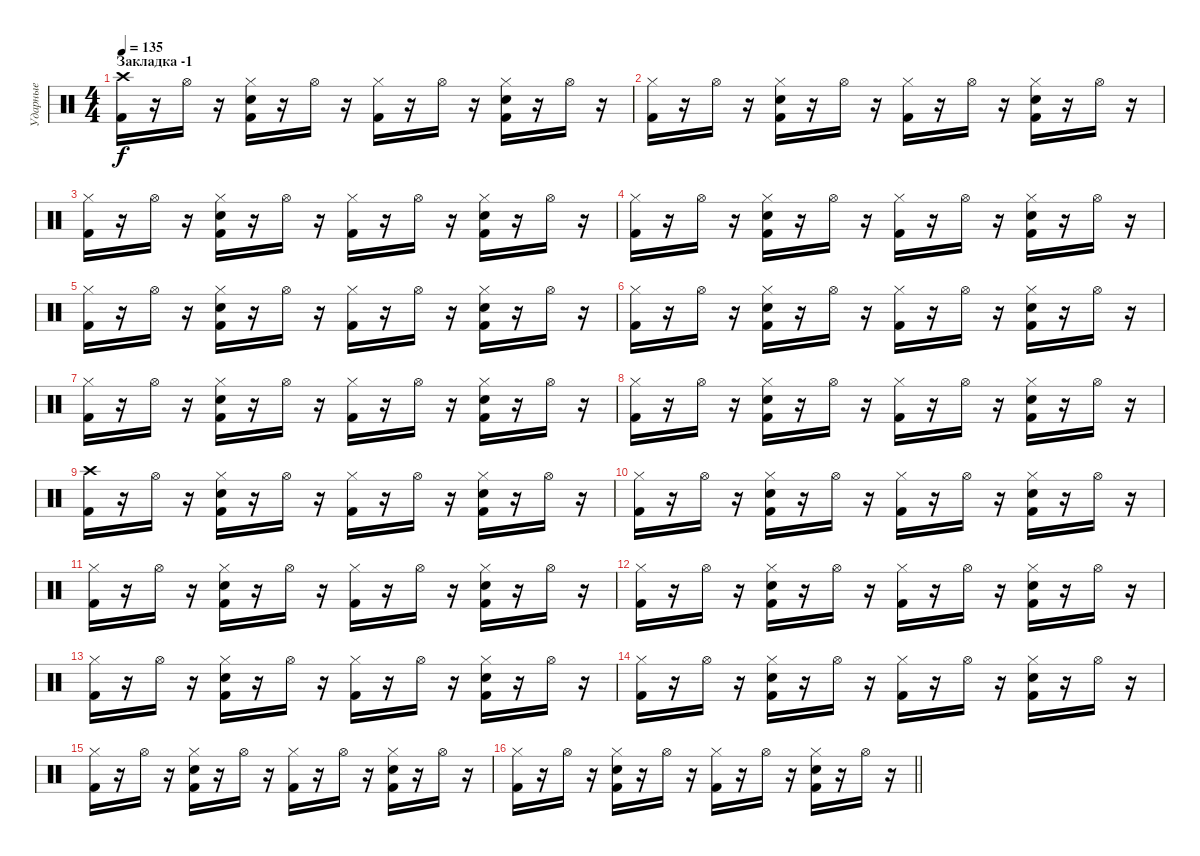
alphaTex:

\track ("Ударные" "Ударные") {instrument percussion}
\staff {score}
\articulation defaults
\ts (4 4)
\section ("" "Закладка -1")
\tempo 135
\clef neutral
\ks c
("Crash high (hit)" "Kick (hit) 2").16{dy f} r.16 "Hi-Hat (open)".16 r.16 ("Hi-Hat (closed)" "Electric Snare (hit)" "Kick (hit) 2").16 r.16 "Hi-Hat (open)".16 r.16 ("Hi-Hat (closed)" "Kick (hit) 2").16 r.16 "Hi-Hat (open)".16 r.16 ("Hi-Hat (closed)" "Electric Snare (hit)" "Kick (hit) 2").16 r.16 "Hi-Hat (open)".16 r.16 |
("Hi-Hat (closed)" "Kick (hit) 2").16 r.16 "Hi-Hat (open)".16 r.16 ("Hi-Hat (closed)" "Electric Snare (hit)" "Kick (hit) 2").16 r.16 "Hi-Hat (open)".16 r.16 ("Hi-Hat (closed)" "Kick (hit) 2").16 r.16 "Hi-Hat (open)".16 r.16 ("Hi-Hat (closed)" "Electric Snare (hit)" "Kick (hit) 2").16 r.16 "Hi-Hat (open)".16 r.16 |
("Hi-Hat (closed)" "Kick (hit) 2").16 r.16 "Hi-Hat (open)".16 r.16 ("Hi-Hat (closed)" "Electric Snare (hit)" "Kick (hit) 2").16 r.16 "Hi-Hat (open)".16 r.16 ("Hi-Hat (closed)" "Kick (hit) 2").16 r.16 "Hi-Hat (open)".16 r.16 ("Hi-Hat (closed)" "Electric Snare (hit)" "Kick (hit) 2").16 r.16 "Hi-Hat (open)".16 r.16 |
("Hi-Hat (closed)" "Kick (hit) 2").16 r.16 "Hi-Hat (open)".16 r.16 ("Hi-Hat (closed)" "Electric Snare (hit)" "Kick (hit) 2").16 r.16 "Hi-Hat (open)".16 r.16 ("Hi-Hat (closed)" "Kick (hit) 2").16 r.16 "Hi-Hat (open)".16 r.16 ("Hi-Hat (closed)" "Electric Snare (hit)" "Kick (hit) 2").16 r.16 "Hi-Hat (open)".16 r.16 |
("Hi-Hat (closed)" "Kick (hit) 2").16 r.16 "Hi-Hat (open)".16 r.16 ("Hi-Hat (closed)" "Electric Snare (hit)" "Kick (hit) 2").16 r.16 "Hi-Hat (open)".16 r.16 ("Hi-Hat (closed)" "Kick (hit) 2").16 r.16 "Hi-Hat (open)".16 r.16 ("Hi-Hat (closed)" "Electric Snare (hit)" "Kick (hit) 2").16 r.16 "Hi-Hat (open)".16 r.16 |
("Hi-Hat (closed)" "Kick (hit) 2").16 r.16 "Hi-Hat (open)".16 r.16 ("Hi-Hat (closed)" "Electric Snare (hit)" "Kick (hit) 2").16 r.16 "Hi-Hat (open)".16 r.16 ("Hi-Hat (closed)" "Kick (hit) 2").16 r.16 "Hi-Hat (open)".16 r.16 ("Hi-Hat (closed)" "Electric Snare (hit)" "Kick (hit) 2").16 r.16 "Hi-Hat (open)".16 r.16 |
("Hi-Hat (closed)" "Kick (hit) 2").16 r.16 "Hi-Hat (open)".16 r.16 ("Hi-Hat (closed)" "Electric Snare (hit)" "Kick (hit) 2").16 r.16 "Hi-Hat (open)".16 r.16 ("Hi-Hat (closed)" "Kick (hit) 2").16 r.16 "Hi-Hat (open)".16 r.16 ("Hi-Hat (closed)" "Electric Snare (hit)" "Kick (hit) 2").16 r.16 "Hi-Hat (open)".16 r.16 |
("Hi-Hat (closed)" "Kick (hit) 2").16 r.16 "Hi-Hat (open)".16 r.16 ("Hi-Hat (closed)" "Electric Snare (hit)" "Kick (hit) 2").16 r.16 "Hi-Hat (open)".16 r.16 ("Hi-Hat (closed)" "Kick (hit) 2").16 r.16 "Hi-Hat (open)".16 r.16 ("Hi-Hat (closed)" "Electric Snare (hit)" "Kick (hit) 2").16 r.16 "Hi-Hat (open)".16 r.16 |
("Crash high (hit)" "Kick (hit) 2").16 r.16 "Hi-Hat (open)".16 r.16 ("Hi-Hat (closed)" "Electric Snare (hit)" "Kick (hit) 2").16 r.16 "Hi-Hat (open)".16 r.16 ("Hi-Hat (closed)" "Kick (hit) 2").16 r.16 "Hi-Hat (open)".16 r.16 ("Hi-Hat (closed)" "Electric Snare (hit)" "Kick (hit) 2").16 r.16 "Hi-Hat (open)".16 r.16 |
("Hi-Hat (closed)" "Kick (hit) 2").16 r.16 "Hi-Hat (open)".16 r.16 ("Hi-Hat (closed)" "Electric Snare (hit)" "Kick (hit) 2").16 r.16 "Hi-Hat (open)".16 r.16 ("Hi-Hat (closed)" "Kick (hit) 2").16 r.16 "Hi-Hat (open)".16 r.16 ("Hi-Hat (closed)" "Electric Snare (hit)" "Kick (hit) 2").16 r.16 "Hi-Hat (open)".16 r.16 |
("Hi-Hat (closed)" "Kick (hit) 2").16 r.16 "Hi-Hat (open)".16 r.16 ("Hi-Hat (closed)" "Electric Snare (hit)" "Kick (hit) 2").16 r.16 "Hi-Hat (open)".16 r.16 ("Hi-Hat (closed)" "Kick (hit) 2").16 r.16 "Hi-Hat (open)".16 r.16 ("Hi-Hat (closed)" "Electric Snare (hit)" "Kick (hit) 2").16 r.16 "Hi-Hat (open)".16 r.16 |
("Hi-Hat (closed)" "Kick (hit) 2").16 r.16 "Hi-Hat (open)".16 r.16 ("Hi-Hat (closed)" "Electric Snare (hit)" "Kick (hit) 2").16 r.16 "Hi-Hat (open)".16 r.16 ("Hi-Hat (closed)" "Kick (hit) 2").16 r.16 "Hi-Hat (open)".16 r.16 ("Hi-Hat (closed)" "Electric Snare (hit)" "Kick (hit) 2").16 r.16 "Hi-Hat (open)".16 r.16 |
("Hi-Hat (closed)" "Kick (hit) 2").16 r.16 "Hi-Hat (open)".16 r.16 ("Hi-Hat (closed)" "Electric Snare (hit)" "Kick (hit) 2").16 r.16 "Hi-Hat (open)".16 r.16 ("Hi-Hat (closed)" "Kick (hit) 2").16 r.16 "Hi-Hat (open)".16 r.16 ("Hi-Hat (closed)" "Electric Snare (hit)" "Kick (hit) 2").16 r.16 "Hi-Hat (open)".16 r.16 |
("Hi-Hat (closed)" "Kick (hit) 2").16 r.16 "Hi-Hat (open)".16 r.16 ("Hi-Hat (closed)" "Electric Snare (hit)" "Kick (hit) 2").16 r.16 "Hi-Hat (open)".16 r.16 ("Hi-Hat (closed)" "Kick (hit) 2").16 r.16 "Hi-Hat (open)".16 r.16 ("Hi-Hat (closed)" "Electric Snare (hit)" "Kick (hit) 2").16 r.16 "Hi-Hat (open)".16 r.16 |
("Hi-Hat (closed)" "Kick (hit) 2").16 r.16 "Hi-Hat (open)".16 r.16 ("Hi-Hat (closed)" "Electric Snare (hit)" "Kick (hit) 2").16 r.16 "Hi-Hat (open)".16 r.16 ("Hi-Hat (closed)" "Kick (hit) 2").16 r.16 "Hi-Hat (open)".16 r.16 ("Hi-Hat (closed)" "Electric Snare (hit)" "Kick (hit) 2").16 r.16 "Hi-Hat (open)".16 r.16 |
\barLineRight lightlight
("Hi-Hat (closed)" "Kick (hit) 2").16 r.16 "Hi-Hat (open)".16 r.16 ("Hi-Hat (closed)" "Electric Snare (hit)" "Kick (hit) 2").16 r.16 "Hi-Hat (open)".16 r.16 ("Hi-Hat (closed)" "Kick (hit) 2").16 r.16 "Hi-Hat (open)".16 r.16 ("Hi-Hat (closed)" "Electric Snare (hit)" "Kick (hit) 2").16 r.16 "Hi-Hat (open)".16 r.16
